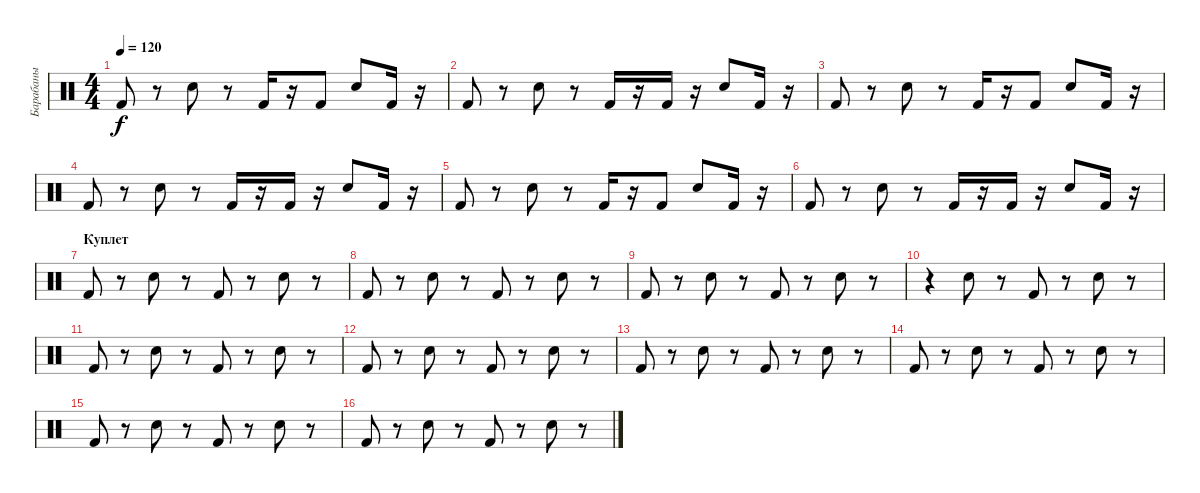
\track ("Барабаны" "Барабаны") {instrument percussion}
\staff {score}
\articulation defaults
\ts (4 4)
\tempo 120
\clef neutral
\ks c "Kick (hit) 2".8{dy f}
r.8 "Electric Snare (hit)".8 r.8 "Kick (hit) 2".16 r.16 "Kick (hit) 2".8 "Electric Snare (hit)".8 "Kick (hit) 2".16 r.16 |
"Kick (hit) 2".8 r.8 "Electric Snare (hit)".8 r.8 "Kick (hit) 2".16 r.16 "Kick (hit) 2".16 r.16 "Electric Snare (hit)".8 "Kick (hit) 2".16 r.16 |
"Kick (hit) 2".8 r.8 "Electric Snare (hit)".8 r.8 "Kick (hit) 2".16 r.16 "Kick (hit) 2".8 "Electric Snare (hit)".8 "Kick (hit) 2".16 r.16 |
"Kick (hit) 2".8 r.8 "Electric Snare (hit)".8 r.8 "Kick (hit) 2".16 r.16 "Kick (hit) 2".16 r.16 "Electric Snare (hit)".8 "Kick (hit) 2".16 r.16 |
"Kick (hit) 2".8 r.8 "Electric Snare (hit)".8 r.8 "Kick (hit) 2".16 r.16 "Kick (hit) 2".8 "Electric Snare (hit)".8 "Kick (hit) 2".16 r.16 |
"Kick (hit) 2".8 r.8 "Electric Snare (hit)".8 r.8 "Kick (hit) 2".16 r.16 "Kick (hit) 2".16 r.16 "Electric Snare (hit)".8 "Kick (hit) 2".16 r.16 |
\section ("" "Куплет")
"Kick (hit) 2".8 r.8 "Electric Snare (hit)".8 r.8 "Kick (hit) 2".8 r.8 "Electric Snare (hit)".8 r.8 |
"Kick (hit) 2".8 r.8 "Electric Snare (hit)".8 r.8 "Kick (hit) 2".8 r.8 "Electric Snare (hit)".8 r.8 |
"Kick (hit) 2".8 r.8 "Electric Snare (hit)".8 r.8 "Kick (hit) 2".8 r.8 "Electric Snare (hit)".8 r.8 |
r.4 "Electric Snare (hit)".8 r.8 "Kick (hit) 2".8 r.8 "Electric Snare (hit)".8 r.8 |
"Kick (hit) 2".8 r.8 "Electric Snare (hit)".8 r.8 "Kick (hit) 2".8 r.8 "Electric Snare (hit)".8 r.8 |
"Kick (hit) 2".8 r.8 "Electric Snare (hit)".8 r.8 "Kick (hit) 2".8 r.8 "Electric Snare (hit)".8 r.8 |
"Kick (hit) 2".8 r.8 "Electric Snare (hit)".8 r.8 "Kick (hit) 2".8 r.8 "Electric Snare (hit)".8 r.8 |
"Kick (hit) 2".8 r.8 "Electric Snare (hit)".8 r.8 "Kick (hit) 2".8 r.8 "Electric Snare (hit)".8 r.8 |
"Kick (hit) 2".8 r.8 "Electric Snare (hit)".8 r.8 "Kick (hit) 2".8 r.8 "Electric Snare (hit)".8 r.8 |
"Kick (hit) 2".8 r.8 "Electric Snare (hit)".8 r.8 "Kick (hit) 2".8 r.8 "Electric Snare (hit)".8 r.8
